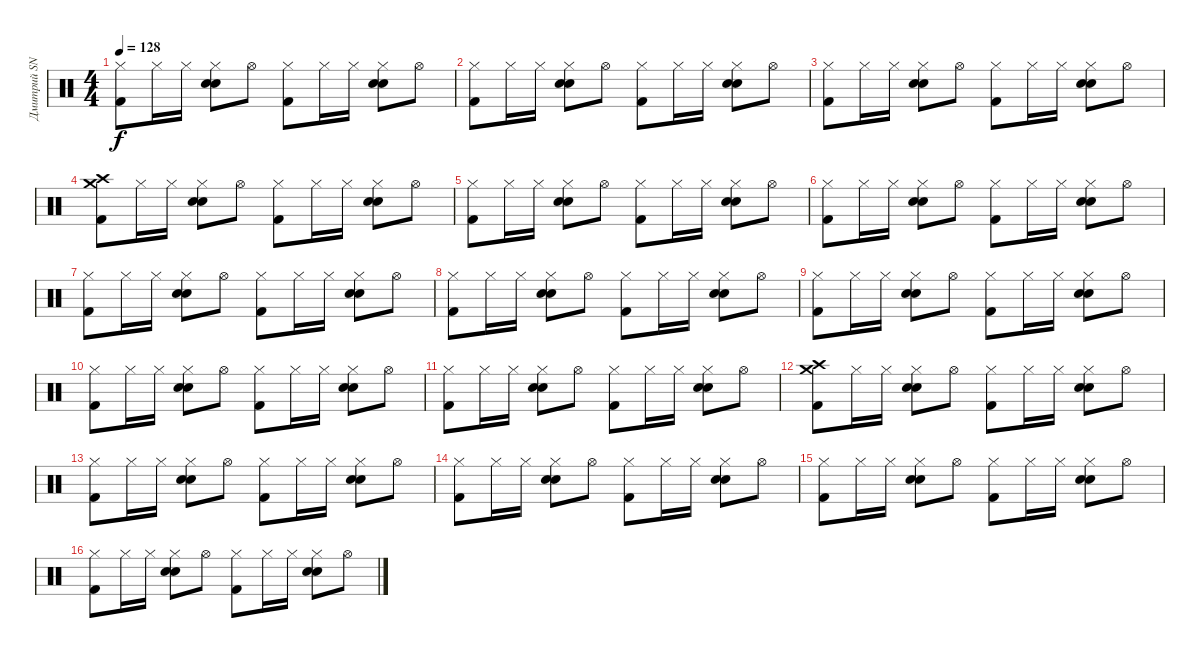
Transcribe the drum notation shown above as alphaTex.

\track ("Дмитрий SNAKE Хакимов" "Дмитрий SN") {instrument percussion}
\staff {score}
\articulation defaults
\ts (4 4)
\tempo 128
\clef neutral
\ks c
("Hi-Hat (closed)" "Kick (hit) 2").8{dy f} "Hi-Hat (closed)".16 "Hi-Hat (closed)".16 ("Hi-Hat (closed)" "Snare (hit) 2" "Hand Clap (hit)").8 "Hi-Hat (open)".8 ("Hi-Hat (closed)" "Kick (hit) 2").8 "Hi-Hat (closed)".16 "Hi-Hat (closed)".16 ("Hi-Hat (closed)" "Snare (hit) 2" "Hand Clap (hit)").8 "Hi-Hat (open)".8 |
("Hi-Hat (closed)" "Kick (hit) 2").8 "Hi-Hat (closed)".16 "Hi-Hat (closed)".16 ("Hi-Hat (closed)" "Snare (hit) 2" "Hand Clap (hit)").8 "Hi-Hat (open)".8 ("Hi-Hat (closed)" "Kick (hit) 2").8 "Hi-Hat (closed)".16 "Hi-Hat (closed)".16 ("Hi-Hat (closed)" "Snare (hit) 2" "Hand Clap (hit)").8 "Hi-Hat (open)".8 |
("Hi-Hat (closed)" "Kick (hit) 2").8 "Hi-Hat (closed)".16 "Hi-Hat (closed)".16 ("Hi-Hat (closed)" "Snare (hit) 2" "Hand Clap (hit)").8 "Hi-Hat (open)".8 ("Hi-Hat (closed)" "Kick (hit) 2").8 "Hi-Hat (closed)".16 "Hi-Hat (closed)".16 ("Hi-Hat (closed)" "Snare (hit) 2" "Hand Clap (hit)").8 "Hi-Hat (open)".8 |
("Crash high (hit)" "Crash medium (hit)" "Kick (hit) 2").8 "Hi-Hat (closed)".16 "Hi-Hat (closed)".16 ("Hi-Hat (closed)" "Snare (hit) 2" "Hand Clap (hit)").8 "Hi-Hat (open)".8 ("Hi-Hat (closed)" "Kick (hit) 2").8 "Hi-Hat (closed)".16 "Hi-Hat (closed)".16 ("Hi-Hat (closed)" "Snare (hit) 2" "Hand Clap (hit)").8 "Hi-Hat (open)".8 |
("Hi-Hat (closed)" "Kick (hit) 2").8 "Hi-Hat (closed)".16 "Hi-Hat (closed)".16 ("Hi-Hat (closed)" "Snare (hit) 2" "Hand Clap (hit)").8 "Hi-Hat (open)".8 ("Hi-Hat (closed)" "Kick (hit) 2").8 "Hi-Hat (closed)".16 "Hi-Hat (closed)".16 ("Hi-Hat (closed)" "Snare (hit) 2" "Hand Clap (hit)").8 "Hi-Hat (open)".8 |
("Hi-Hat (closed)" "Kick (hit) 2").8 "Hi-Hat (closed)".16 "Hi-Hat (closed)".16 ("Hi-Hat (closed)" "Snare (hit) 2" "Hand Clap (hit)").8 "Hi-Hat (open)".8 ("Hi-Hat (closed)" "Kick (hit) 2").8 "Hi-Hat (closed)".16 "Hi-Hat (closed)".16 ("Hi-Hat (closed)" "Snare (hit) 2" "Hand Clap (hit)").8 "Hi-Hat (open)".8 |
("Hi-Hat (closed)" "Kick (hit) 2").8 "Hi-Hat (closed)".16 "Hi-Hat (closed)".16 ("Hi-Hat (closed)" "Snare (hit) 2" "Hand Clap (hit)").8 "Hi-Hat (open)".8 ("Hi-Hat (closed)" "Kick (hit) 2").8 "Hi-Hat (closed)".16 "Hi-Hat (closed)".16 ("Hi-Hat (closed)" "Snare (hit) 2" "Hand Clap (hit)").8 "Hi-Hat (open)".8 |
("Hi-Hat (closed)" "Kick (hit) 2").8 "Hi-Hat (closed)".16 "Hi-Hat (closed)".16 ("Hi-Hat (closed)" "Snare (hit) 2" "Hand Clap (hit)").8 "Hi-Hat (open)".8 ("Hi-Hat (closed)" "Kick (hit) 2").8 "Hi-Hat (closed)".16 "Hi-Hat (closed)".16 ("Hi-Hat (closed)" "Snare (hit) 2" "Hand Clap (hit)").8 "Hi-Hat (open)".8 |
("Hi-Hat (closed)" "Kick (hit) 2").8 "Hi-Hat (closed)".16 "Hi-Hat (closed)".16 ("Hi-Hat (closed)" "Snare (hit) 2" "Hand Clap (hit)").8 "Hi-Hat (open)".8 ("Hi-Hat (closed)" "Kick (hit) 2").8 "Hi-Hat (closed)".16 "Hi-Hat (closed)".16 ("Hi-Hat (closed)" "Snare (hit) 2" "Hand Clap (hit)").8 "Hi-Hat (open)".8 |
("Hi-Hat (closed)" "Kick (hit) 2").8 "Hi-Hat (closed)".16 "Hi-Hat (closed)".16 ("Hi-Hat (closed)" "Snare (hit) 2" "Hand Clap (hit)").8 "Hi-Hat (open)".8 ("Hi-Hat (closed)" "Kick (hit) 2").8 "Hi-Hat (closed)".16 "Hi-Hat (closed)".16 ("Hi-Hat (closed)" "Snare (hit) 2" "Hand Clap (hit)").8 "Hi-Hat (open)".8 |
("Hi-Hat (closed)" "Kick (hit) 2").8 "Hi-Hat (closed)".16 "Hi-Hat (closed)".16 ("Hi-Hat (closed)" "Snare (hit) 2" "Hand Clap (hit)").8 "Hi-Hat (open)".8 ("Hi-Hat (closed)" "Kick (hit) 2").8 "Hi-Hat (closed)".16 "Hi-Hat (closed)".16 ("Hi-Hat (closed)" "Snare (hit) 2" "Hand Clap (hit)").8 "Hi-Hat (open)".8 |
("Crash high (hit)" "Crash medium (hit)" "Kick (hit) 2").8 "Hi-Hat (closed)".16 "Hi-Hat (closed)".16 ("Hi-Hat (closed)" "Snare (hit) 2" "Hand Clap (hit)").8 "Hi-Hat (open)".8 ("Hi-Hat (closed)" "Kick (hit) 2").8 "Hi-Hat (closed)".16 "Hi-Hat (closed)".16 ("Hi-Hat (closed)" "Snare (hit) 2" "Hand Clap (hit)").8 "Hi-Hat (open)".8 |
("Hi-Hat (closed)" "Kick (hit) 2").8 "Hi-Hat (closed)".16 "Hi-Hat (closed)".16 ("Hi-Hat (closed)" "Snare (hit) 2" "Hand Clap (hit)").8 "Hi-Hat (open)".8 ("Hi-Hat (closed)" "Kick (hit) 2").8 "Hi-Hat (closed)".16 "Hi-Hat (closed)".16 ("Hi-Hat (closed)" "Snare (hit) 2" "Hand Clap (hit)").8 "Hi-Hat (open)".8 |
("Hi-Hat (closed)" "Kick (hit) 2").8 "Hi-Hat (closed)".16 "Hi-Hat (closed)".16 ("Hi-Hat (closed)" "Snare (hit) 2" "Hand Clap (hit)").8 "Hi-Hat (open)".8 ("Hi-Hat (closed)" "Kick (hit) 2").8 "Hi-Hat (closed)".16 "Hi-Hat (closed)".16 ("Hi-Hat (closed)" "Snare (hit) 2" "Hand Clap (hit)").8 "Hi-Hat (open)".8 |
("Hi-Hat (closed)" "Kick (hit) 2").8 "Hi-Hat (closed)".16 "Hi-Hat (closed)".16 ("Hi-Hat (closed)" "Snare (hit) 2" "Hand Clap (hit)").8 "Hi-Hat (open)".8 ("Hi-Hat (closed)" "Kick (hit) 2").8 "Hi-Hat (closed)".16 "Hi-Hat (closed)".16 ("Hi-Hat (closed)" "Snare (hit) 2" "Hand Clap (hit)").8 "Hi-Hat (open)".8 |
("Hi-Hat (closed)" "Kick (hit) 2").8 "Hi-Hat (closed)".16 "Hi-Hat (closed)".16 ("Hi-Hat (closed)" "Snare (hit) 2" "Hand Clap (hit)").8 "Hi-Hat (open)".8 ("Hi-Hat (closed)" "Kick (hit) 2").8 "Hi-Hat (closed)".16 "Hi-Hat (closed)".16 ("Hi-Hat (closed)" "Snare (hit) 2" "Hand Clap (hit)").8 "Hi-Hat (open)".8
